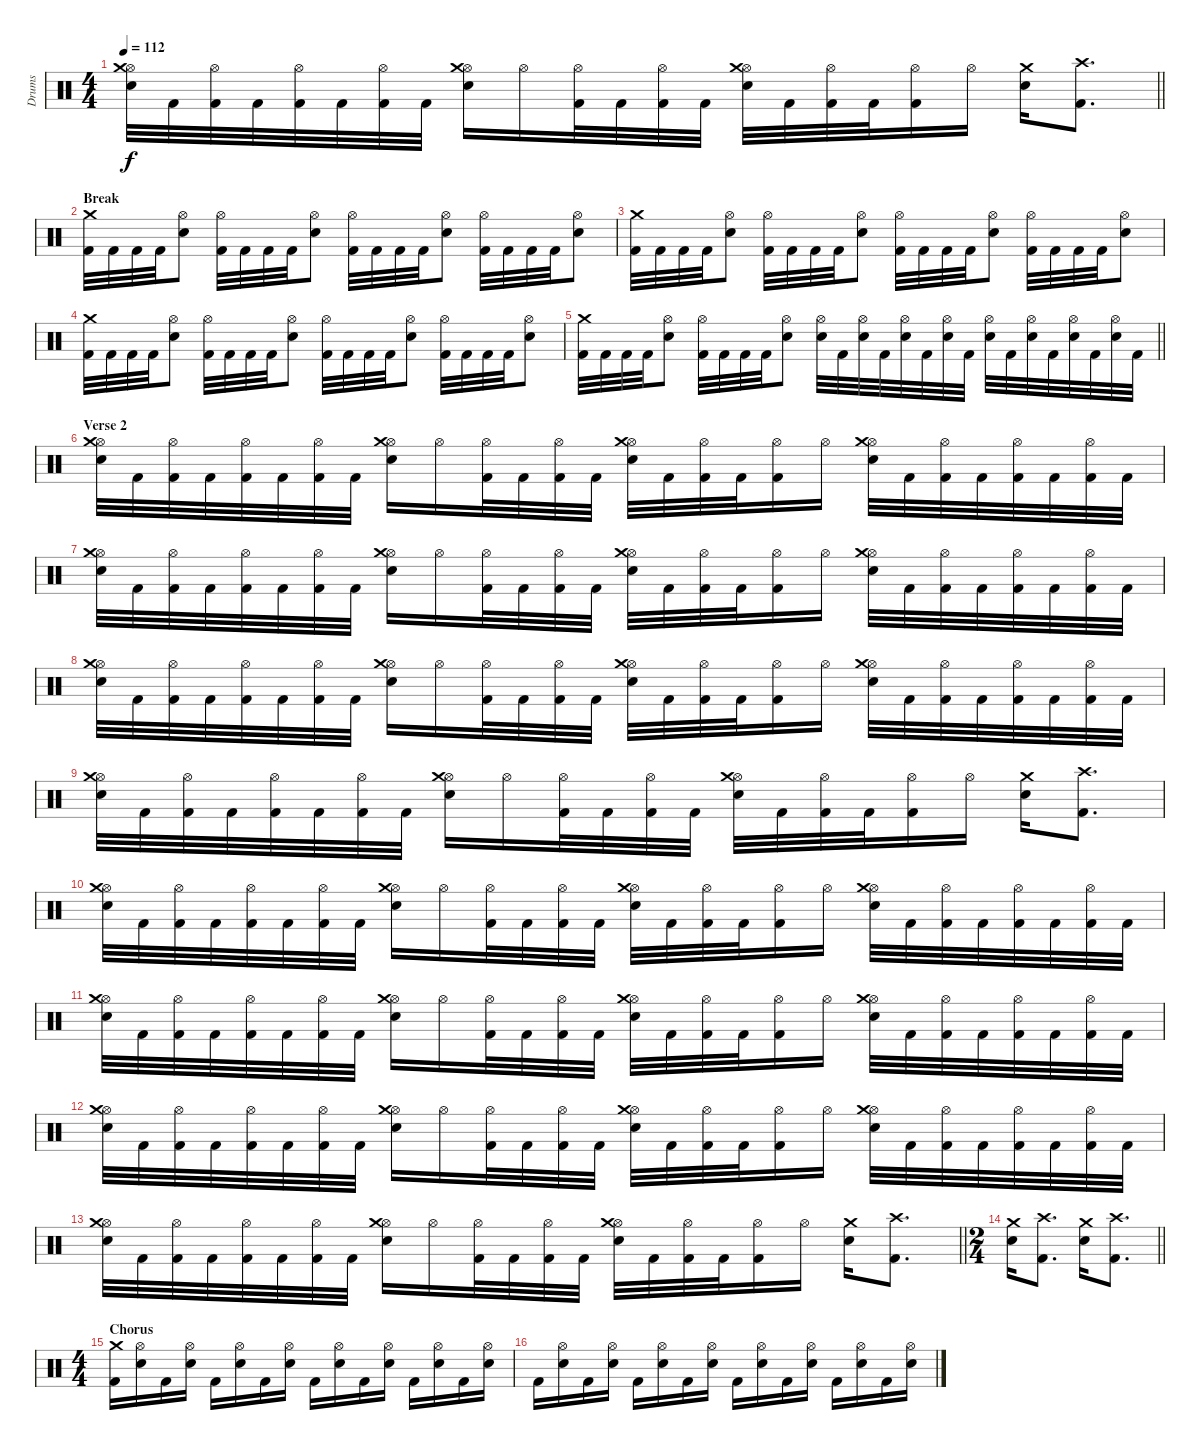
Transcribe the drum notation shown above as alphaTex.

\track ("Drums" "Drums") {instrument percussion}
\staff {score}
\articulation defaults
\ts (4 4)
\tempo 112
\clef neutral
\barLineRight lightlight
\ks c
("Hi-Hat (open)" "Snare (hit) 2" "Crash medium (hit)").32{dy f} "Kick (hit) 2".32 ("Hi-Hat (open)" "Kick (hit) 2").32 "Kick (hit) 2".32 ("Hi-Hat (open)" "Kick (hit) 2").32 "Kick (hit) 2".32 ("Hi-Hat (open)" "Kick (hit) 2").32 "Kick (hit) 2".32 ("Hi-Hat (open)" "Snare (hit) 2" "Crash medium (hit)").16 "Hi-Hat (open)".16 ("Hi-Hat (open)" "Kick (hit) 2").32 "Kick (hit) 2".32 ("Hi-Hat (open)" "Kick (hit) 2").32 "Kick (hit) 2".32 ("Hi-Hat (open)" "Snare (hit) 2" "Crash medium (hit)").32 "Kick (hit) 2".32 ("Hi-Hat (open)" "Kick (hit) 2").32 "Kick (hit) 2".32 ("Hi-Hat (open)" "Kick (hit) 2").16 "Hi-Hat (open)".16 ("Snare (hit) 2" "Crash medium (hit)").16 ("Kick (hit) 2" "Crash high (hit)").8{d} |
\section ("" "Break")
("Kick (hit) 2" "Crash medium (hit)").32 "Kick (hit) 2".32 "Kick (hit) 2".32 "Kick (hit) 2".32 ("Hi-Hat (open)" "Snare (hit) 2").8 ("Hi-Hat (open)" "Kick (hit) 2").32 "Kick (hit) 2".32 "Kick (hit) 2".32 "Kick (hit) 2".32 ("Hi-Hat (open)" "Snare (hit) 2").8 ("Hi-Hat (open)" "Kick (hit) 2").32 "Kick (hit) 2".32 "Kick (hit) 2".32 "Kick (hit) 2".32 ("Hi-Hat (open)" "Snare (hit) 2").8 ("Hi-Hat (open)" "Kick (hit) 2").32 "Kick (hit) 2".32 "Kick (hit) 2".32 "Kick (hit) 2".32 ("Hi-Hat (open)" "Snare (hit) 2").8 |
("Kick (hit) 2" "Crash medium (hit)").32 "Kick (hit) 2".32 "Kick (hit) 2".32 "Kick (hit) 2".32 ("Hi-Hat (open)" "Snare (hit) 2").8 ("Hi-Hat (open)" "Kick (hit) 2").32 "Kick (hit) 2".32 "Kick (hit) 2".32 "Kick (hit) 2".32 ("Hi-Hat (open)" "Snare (hit) 2").8 ("Hi-Hat (open)" "Kick (hit) 2").32 "Kick (hit) 2".32 "Kick (hit) 2".32 "Kick (hit) 2".32 ("Hi-Hat (open)" "Snare (hit) 2").8 ("Hi-Hat (open)" "Kick (hit) 2").32 "Kick (hit) 2".32 "Kick (hit) 2".32 "Kick (hit) 2".32 ("Hi-Hat (open)" "Snare (hit) 2").8 |
("Kick (hit) 2" "Crash medium (hit)").32 "Kick (hit) 2".32 "Kick (hit) 2".32 "Kick (hit) 2".32 ("Hi-Hat (open)" "Snare (hit) 2").8 ("Hi-Hat (open)" "Kick (hit) 2").32 "Kick (hit) 2".32 "Kick (hit) 2".32 "Kick (hit) 2".32 ("Hi-Hat (open)" "Snare (hit) 2").8 ("Hi-Hat (open)" "Kick (hit) 2").32 "Kick (hit) 2".32 "Kick (hit) 2".32 "Kick (hit) 2".32 ("Hi-Hat (open)" "Snare (hit) 2").8 ("Hi-Hat (open)" "Kick (hit) 2").32 "Kick (hit) 2".32 "Kick (hit) 2".32 "Kick (hit) 2".32 ("Hi-Hat (open)" "Snare (hit) 2").8 |
\barLineRight lightlight
("Kick (hit) 2" "Crash medium (hit)").32 "Kick (hit) 2".32 "Kick (hit) 2".32 "Kick (hit) 2".32 ("Hi-Hat (open)" "Snare (hit) 2").8 ("Hi-Hat (open)" "Kick (hit) 2").32 "Kick (hit) 2".32 "Kick (hit) 2".32 "Kick (hit) 2".32 ("Hi-Hat (open)" "Snare (hit) 2").8 ("Hi-Hat (open)" "Snare (hit) 2").32 "Kick (hit) 2".32 ("Hi-Hat (open)" "Snare (hit) 2").32 "Kick (hit) 2".32 ("Hi-Hat (open)" "Snare (hit) 2").32 "Kick (hit) 2".32 ("Hi-Hat (open)" "Snare (hit) 2").32 "Kick (hit) 2".32 ("Hi-Hat (open)" "Snare (hit) 2").32 "Kick (hit) 2".32 ("Hi-Hat (open)" "Snare (hit) 2").32 "Kick (hit) 2".32 ("Hi-Hat (open)" "Snare (hit) 2").32 "Kick (hit) 2".32 ("Hi-Hat (open)" "Snare (hit) 2").32 "Kick (hit) 2".32 |
\section ("" "Verse 2")
("Hi-Hat (open)" "Snare (hit) 2" "Crash medium (hit)").32 "Kick (hit) 2".32 ("Hi-Hat (open)" "Kick (hit) 2").32 "Kick (hit) 2".32 ("Hi-Hat (open)" "Kick (hit) 2").32 "Kick (hit) 2".32 ("Hi-Hat (open)" "Kick (hit) 2").32 "Kick (hit) 2".32 ("Hi-Hat (open)" "Snare (hit) 2" "Crash medium (hit)").16 "Hi-Hat (open)".16 ("Hi-Hat (open)" "Kick (hit) 2").32 "Kick (hit) 2".32 ("Hi-Hat (open)" "Kick (hit) 2").32 "Kick (hit) 2".32 ("Hi-Hat (open)" "Snare (hit) 2" "Crash medium (hit)").32 "Kick (hit) 2".32 ("Hi-Hat (open)" "Kick (hit) 2").32 "Kick (hit) 2".32 ("Hi-Hat (open)" "Kick (hit) 2").16 "Hi-Hat (open)".16 ("Hi-Hat (open)" "Snare (hit) 2" "Crash medium (hit)").32 "Kick (hit) 2".32 ("Hi-Hat (open)" "Kick (hit) 2").32 "Kick (hit) 2".32 ("Hi-Hat (open)" "Kick (hit) 2").32 "Kick (hit) 2".32 ("Hi-Hat (open)" "Kick (hit) 2").32 "Kick (hit) 2".32 |
("Hi-Hat (open)" "Snare (hit) 2" "Crash medium (hit)").32 "Kick (hit) 2".32 ("Hi-Hat (open)" "Kick (hit) 2").32 "Kick (hit) 2".32 ("Hi-Hat (open)" "Kick (hit) 2").32 "Kick (hit) 2".32 ("Hi-Hat (open)" "Kick (hit) 2").32 "Kick (hit) 2".32 ("Hi-Hat (open)" "Snare (hit) 2" "Crash medium (hit)").16 "Hi-Hat (open)".16 ("Hi-Hat (open)" "Kick (hit) 2").32 "Kick (hit) 2".32 ("Hi-Hat (open)" "Kick (hit) 2").32 "Kick (hit) 2".32 ("Hi-Hat (open)" "Snare (hit) 2" "Crash medium (hit)").32 "Kick (hit) 2".32 ("Hi-Hat (open)" "Kick (hit) 2").32 "Kick (hit) 2".32 ("Hi-Hat (open)" "Kick (hit) 2").16 "Hi-Hat (open)".16 ("Hi-Hat (open)" "Snare (hit) 2" "Crash medium (hit)").32 "Kick (hit) 2".32 ("Hi-Hat (open)" "Kick (hit) 2").32 "Kick (hit) 2".32 ("Hi-Hat (open)" "Kick (hit) 2").32 "Kick (hit) 2".32 ("Hi-Hat (open)" "Kick (hit) 2").32 "Kick (hit) 2".32 |
("Hi-Hat (open)" "Snare (hit) 2" "Crash medium (hit)").32 "Kick (hit) 2".32 ("Hi-Hat (open)" "Kick (hit) 2").32 "Kick (hit) 2".32 ("Hi-Hat (open)" "Kick (hit) 2").32 "Kick (hit) 2".32 ("Hi-Hat (open)" "Kick (hit) 2").32 "Kick (hit) 2".32 ("Hi-Hat (open)" "Snare (hit) 2" "Crash medium (hit)").16 "Hi-Hat (open)".16 ("Hi-Hat (open)" "Kick (hit) 2").32 "Kick (hit) 2".32 ("Hi-Hat (open)" "Kick (hit) 2").32 "Kick (hit) 2".32 ("Hi-Hat (open)" "Snare (hit) 2" "Crash medium (hit)").32 "Kick (hit) 2".32 ("Hi-Hat (open)" "Kick (hit) 2").32 "Kick (hit) 2".32 ("Hi-Hat (open)" "Kick (hit) 2").16 "Hi-Hat (open)".16 ("Hi-Hat (open)" "Snare (hit) 2" "Crash medium (hit)").32 "Kick (hit) 2".32 ("Hi-Hat (open)" "Kick (hit) 2").32 "Kick (hit) 2".32 ("Hi-Hat (open)" "Kick (hit) 2").32 "Kick (hit) 2".32 ("Hi-Hat (open)" "Kick (hit) 2").32 "Kick (hit) 2".32 |
("Hi-Hat (open)" "Snare (hit) 2" "Crash medium (hit)").32 "Kick (hit) 2".32 ("Hi-Hat (open)" "Kick (hit) 2").32 "Kick (hit) 2".32 ("Hi-Hat (open)" "Kick (hit) 2").32 "Kick (hit) 2".32 ("Hi-Hat (open)" "Kick (hit) 2").32 "Kick (hit) 2".32 ("Hi-Hat (open)" "Snare (hit) 2" "Crash medium (hit)").16 "Hi-Hat (open)".16 ("Hi-Hat (open)" "Kick (hit) 2").32 "Kick (hit) 2".32 ("Hi-Hat (open)" "Kick (hit) 2").32 "Kick (hit) 2".32 ("Hi-Hat (open)" "Snare (hit) 2" "Crash medium (hit)").32 "Kick (hit) 2".32 ("Hi-Hat (open)" "Kick (hit) 2").32 "Kick (hit) 2".32 ("Hi-Hat (open)" "Kick (hit) 2").16 "Hi-Hat (open)".16 ("Snare (hit) 2" "Crash medium (hit)").16 ("Kick (hit) 2" "Crash high (hit)").8{d} |
("Hi-Hat (open)" "Snare (hit) 2" "Crash medium (hit)").32 "Kick (hit) 2".32 ("Hi-Hat (open)" "Kick (hit) 2").32 "Kick (hit) 2".32 ("Hi-Hat (open)" "Kick (hit) 2").32 "Kick (hit) 2".32 ("Hi-Hat (open)" "Kick (hit) 2").32 "Kick (hit) 2".32 ("Hi-Hat (open)" "Snare (hit) 2" "Crash medium (hit)").16 "Hi-Hat (open)".16 ("Hi-Hat (open)" "Kick (hit) 2").32 "Kick (hit) 2".32 ("Hi-Hat (open)" "Kick (hit) 2").32 "Kick (hit) 2".32 ("Hi-Hat (open)" "Snare (hit) 2" "Crash medium (hit)").32 "Kick (hit) 2".32 ("Hi-Hat (open)" "Kick (hit) 2").32 "Kick (hit) 2".32 ("Hi-Hat (open)" "Kick (hit) 2").16 "Hi-Hat (open)".16 ("Hi-Hat (open)" "Snare (hit) 2" "Crash medium (hit)").32 "Kick (hit) 2".32 ("Hi-Hat (open)" "Kick (hit) 2").32 "Kick (hit) 2".32 ("Hi-Hat (open)" "Kick (hit) 2").32 "Kick (hit) 2".32 ("Hi-Hat (open)" "Kick (hit) 2").32 "Kick (hit) 2".32 |
("Hi-Hat (open)" "Snare (hit) 2" "Crash medium (hit)").32 "Kick (hit) 2".32 ("Hi-Hat (open)" "Kick (hit) 2").32 "Kick (hit) 2".32 ("Hi-Hat (open)" "Kick (hit) 2").32 "Kick (hit) 2".32 ("Hi-Hat (open)" "Kick (hit) 2").32 "Kick (hit) 2".32 ("Hi-Hat (open)" "Snare (hit) 2" "Crash medium (hit)").16 "Hi-Hat (open)".16 ("Hi-Hat (open)" "Kick (hit) 2").32 "Kick (hit) 2".32 ("Hi-Hat (open)" "Kick (hit) 2").32 "Kick (hit) 2".32 ("Hi-Hat (open)" "Snare (hit) 2" "Crash medium (hit)").32 "Kick (hit) 2".32 ("Hi-Hat (open)" "Kick (hit) 2").32 "Kick (hit) 2".32 ("Hi-Hat (open)" "Kick (hit) 2").16 "Hi-Hat (open)".16 ("Hi-Hat (open)" "Snare (hit) 2" "Crash medium (hit)").32 "Kick (hit) 2".32 ("Hi-Hat (open)" "Kick (hit) 2").32 "Kick (hit) 2".32 ("Hi-Hat (open)" "Kick (hit) 2").32 "Kick (hit) 2".32 ("Hi-Hat (open)" "Kick (hit) 2").32 "Kick (hit) 2".32 |
("Hi-Hat (open)" "Snare (hit) 2" "Crash medium (hit)").32 "Kick (hit) 2".32 ("Hi-Hat (open)" "Kick (hit) 2").32 "Kick (hit) 2".32 ("Hi-Hat (open)" "Kick (hit) 2").32 "Kick (hit) 2".32 ("Hi-Hat (open)" "Kick (hit) 2").32 "Kick (hit) 2".32 ("Hi-Hat (open)" "Snare (hit) 2" "Crash medium (hit)").16 "Hi-Hat (open)".16 ("Hi-Hat (open)" "Kick (hit) 2").32 "Kick (hit) 2".32 ("Hi-Hat (open)" "Kick (hit) 2").32 "Kick (hit) 2".32 ("Hi-Hat (open)" "Snare (hit) 2" "Crash medium (hit)").32 "Kick (hit) 2".32 ("Hi-Hat (open)" "Kick (hit) 2").32 "Kick (hit) 2".32 ("Hi-Hat (open)" "Kick (hit) 2").16 "Hi-Hat (open)".16 ("Hi-Hat (open)" "Snare (hit) 2" "Crash medium (hit)").32 "Kick (hit) 2".32 ("Hi-Hat (open)" "Kick (hit) 2").32 "Kick (hit) 2".32 ("Hi-Hat (open)" "Kick (hit) 2").32 "Kick (hit) 2".32 ("Hi-Hat (open)" "Kick (hit) 2").32 "Kick (hit) 2".32 |
\barLineRight lightlight
("Hi-Hat (open)" "Snare (hit) 2" "Crash medium (hit)").32 "Kick (hit) 2".32 ("Hi-Hat (open)" "Kick (hit) 2").32 "Kick (hit) 2".32 ("Hi-Hat (open)" "Kick (hit) 2").32 "Kick (hit) 2".32 ("Hi-Hat (open)" "Kick (hit) 2").32 "Kick (hit) 2".32 ("Hi-Hat (open)" "Snare (hit) 2" "Crash medium (hit)").16 "Hi-Hat (open)".16 ("Hi-Hat (open)" "Kick (hit) 2").32 "Kick (hit) 2".32 ("Hi-Hat (open)" "Kick (hit) 2").32 "Kick (hit) 2".32 ("Hi-Hat (open)" "Snare (hit) 2" "Crash medium (hit)").32 "Kick (hit) 2".32 ("Hi-Hat (open)" "Kick (hit) 2").32 "Kick (hit) 2".32 ("Hi-Hat (open)" "Kick (hit) 2").16 "Hi-Hat (open)".16 ("Snare (hit) 2" "Crash medium (hit)").16 ("Kick (hit) 2" "Crash high (hit)").8{d} |
\ts (2 4)
\barLineRight lightlight
("Snare (hit) 2" "Crash medium (hit)").16 ("Kick (hit) 2" "Crash high (hit)").8{d} ("Snare (hit) 2" "Crash medium (hit)").16 ("Kick (hit) 2" "Crash high (hit)").8{d} |
\ts (4 4)
\section ("" "Chorus")
("Kick (hit) 2" "Crash medium (hit)").16 ("Hi-Hat (open)" "Snare (hit) 2").16 "Kick (hit) 2".16 ("Hi-Hat (open)" "Snare (hit) 2").16 "Kick (hit) 2".16 ("Hi-Hat (open)" "Snare (hit) 2").16 "Kick (hit) 2".16 ("Hi-Hat (open)" "Snare (hit) 2").16 "Kick (hit) 2".16 ("Hi-Hat (open)" "Snare (hit) 2").16 "Kick (hit) 2".16 ("Hi-Hat (open)" "Snare (hit) 2").16 "Kick (hit) 2".16 ("Hi-Hat (open)" "Snare (hit) 2").16 "Kick (hit) 2".16 ("Hi-Hat (open)" "Snare (hit) 2").16 |
"Kick (hit) 2".16 ("Hi-Hat (open)" "Snare (hit) 2").16 "Kick (hit) 2".16 ("Hi-Hat (open)" "Snare (hit) 2").16 "Kick (hit) 2".16 ("Hi-Hat (open)" "Snare (hit) 2").16 "Kick (hit) 2".16 ("Hi-Hat (open)" "Snare (hit) 2").16 "Kick (hit) 2".16 ("Hi-Hat (open)" "Snare (hit) 2").16 "Kick (hit) 2".16 ("Hi-Hat (open)" "Snare (hit) 2").16 "Kick (hit) 2".16 ("Hi-Hat (open)" "Snare (hit) 2").16 "Kick (hit) 2".16 ("Hi-Hat (open)" "Snare (hit) 2").16
